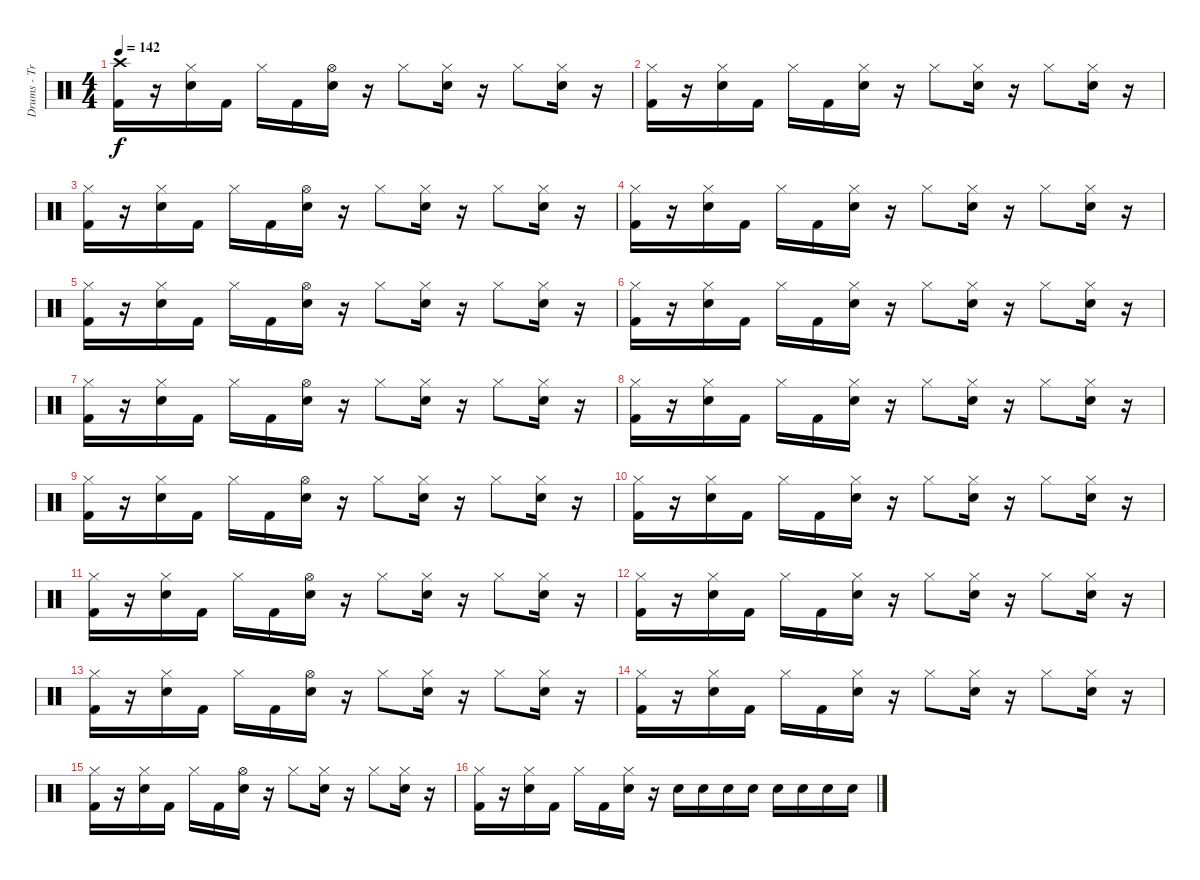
\track ("Drums - Travis" "Drums - Tr") {instrument percussion}
\staff {score}
\articulation defaults
\ts (4 4)
\tempo 142
\clef neutral
\ks c
("Kick (hit) 2" "Crash high (hit)").16{dy f} r.16 ("Electric Snare (hit)" "Hi-Hat (closed)").16 "Kick (hit) 2".16 "Hi-Hat (closed)".16 "Kick (hit) 2".16 ("Electric Snare (hit)" "Hi-Hat (open)").16 r.16 "Hi-Hat (closed)".8 ("Electric Snare (hit)" "Hi-Hat (closed)").16 r.16 "Hi-Hat (closed)".8 ("Electric Snare (hit)" "Hi-Hat (closed)").16 r.16 |
("Kick (hit) 2" "Hi-Hat (closed)").16 r.16 ("Electric Snare (hit)" "Hi-Hat (closed)").16 "Kick (hit) 2".16 "Hi-Hat (closed)".16 "Kick (hit) 2".16 ("Electric Snare (hit)" "Hi-Hat (closed)").16 r.16 "Hi-Hat (closed)".8 ("Electric Snare (hit)" "Hi-Hat (closed)").16 r.16 "Hi-Hat (closed)".8 ("Electric Snare (hit)" "Hi-Hat (closed)").16 r.16 |
("Hi-Hat (closed)" "Kick (hit) 2").16 r.16 ("Electric Snare (hit)" "Hi-Hat (closed)").16 "Kick (hit) 2".16 "Hi-Hat (closed)".16 "Kick (hit) 2".16 ("Electric Snare (hit)" "Hi-Hat (open)").16 r.16 "Hi-Hat (closed)".8 ("Electric Snare (hit)" "Hi-Hat (closed)").16 r.16 "Hi-Hat (closed)".8 ("Electric Snare (hit)" "Hi-Hat (closed)").16 r.16 |
("Kick (hit) 2" "Hi-Hat (closed)").16 r.16 ("Electric Snare (hit)" "Hi-Hat (closed)").16 "Kick (hit) 2".16 "Hi-Hat (closed)".16 "Kick (hit) 2".16 ("Electric Snare (hit)" "Hi-Hat (closed)").16 r.16 "Hi-Hat (closed)".8 ("Electric Snare (hit)" "Hi-Hat (closed)").16 r.16 "Hi-Hat (closed)".8 ("Electric Snare (hit)" "Hi-Hat (closed)").16 r.16 |
("Kick (hit) 2" "Hi-Hat (closed)").16 r.16 ("Electric Snare (hit)" "Hi-Hat (closed)").16 "Kick (hit) 2".16 "Hi-Hat (closed)".16 "Kick (hit) 2".16 ("Electric Snare (hit)" "Hi-Hat (open)").16 r.16 "Hi-Hat (closed)".8 ("Electric Snare (hit)" "Hi-Hat (closed)").16 r.16 "Hi-Hat (closed)".8 ("Electric Snare (hit)" "Hi-Hat (closed)").16 r.16 |
("Kick (hit) 2" "Hi-Hat (closed)").16 r.16 ("Electric Snare (hit)" "Hi-Hat (closed)").16 "Kick (hit) 2".16 "Hi-Hat (closed)".16 "Kick (hit) 2".16 ("Electric Snare (hit)" "Hi-Hat (closed)").16 r.16 "Hi-Hat (closed)".8 ("Electric Snare (hit)" "Hi-Hat (closed)").16 r.16 "Hi-Hat (closed)".8 ("Electric Snare (hit)" "Hi-Hat (closed)").16 r.16 |
("Kick (hit) 2" "Hi-Hat (closed)").16 r.16 ("Electric Snare (hit)" "Hi-Hat (closed)").16 "Kick (hit) 2".16 "Hi-Hat (closed)".16 "Kick (hit) 2".16 ("Electric Snare (hit)" "Hi-Hat (open)").16 r.16 "Hi-Hat (closed)".8 ("Electric Snare (hit)" "Hi-Hat (closed)").16 r.16 "Hi-Hat (closed)".8 ("Electric Snare (hit)" "Hi-Hat (closed)").16 r.16 |
("Kick (hit) 2" "Hi-Hat (closed)").16 r.16 ("Electric Snare (hit)" "Hi-Hat (closed)").16 "Kick (hit) 2".16 "Hi-Hat (closed)".16 "Kick (hit) 2".16 ("Electric Snare (hit)" "Hi-Hat (closed)").16 r.16 "Hi-Hat (closed)".8 ("Electric Snare (hit)" "Hi-Hat (closed)").16 r.16 "Hi-Hat (closed)".8 ("Electric Snare (hit)" "Hi-Hat (closed)").16 r.16 |
("Kick (hit) 2" "Hi-Hat (closed)").16 r.16 ("Electric Snare (hit)" "Hi-Hat (closed)").16 "Kick (hit) 2".16 "Hi-Hat (closed)".16 "Kick (hit) 2".16 ("Electric Snare (hit)" "Hi-Hat (open)").16 r.16 "Hi-Hat (closed)".8 ("Electric Snare (hit)" "Hi-Hat (closed)").16 r.16 "Hi-Hat (closed)".8 ("Electric Snare (hit)" "Hi-Hat (closed)").16 r.16 |
("Kick (hit) 2" "Hi-Hat (closed)").16 r.16 ("Electric Snare (hit)" "Hi-Hat (closed)").16 "Kick (hit) 2".16 "Hi-Hat (closed)".16 "Kick (hit) 2".16 ("Electric Snare (hit)" "Hi-Hat (closed)").16 r.16 "Hi-Hat (closed)".8 ("Electric Snare (hit)" "Hi-Hat (closed)").16 r.16 "Hi-Hat (closed)".8 ("Electric Snare (hit)" "Hi-Hat (closed)").16 r.16 |
("Kick (hit) 2" "Hi-Hat (closed)").16 r.16 ("Electric Snare (hit)" "Hi-Hat (closed)").16 "Kick (hit) 2".16 "Hi-Hat (closed)".16 "Kick (hit) 2".16 ("Electric Snare (hit)" "Hi-Hat (open)").16 r.16 "Hi-Hat (closed)".8 ("Electric Snare (hit)" "Hi-Hat (closed)").16 r.16 "Hi-Hat (closed)".8 ("Electric Snare (hit)" "Hi-Hat (closed)").16 r.16 |
("Kick (hit) 2" "Hi-Hat (closed)").16 r.16 ("Electric Snare (hit)" "Hi-Hat (closed)").16 "Kick (hit) 2".16 "Hi-Hat (closed)".16 "Kick (hit) 2".16 ("Electric Snare (hit)" "Hi-Hat (closed)").16 r.16 "Hi-Hat (closed)".8 ("Electric Snare (hit)" "Hi-Hat (closed)").16 r.16 "Hi-Hat (closed)".8 ("Electric Snare (hit)" "Hi-Hat (closed)").16 r.16 |
("Kick (hit) 2" "Hi-Hat (closed)").16 r.16 ("Electric Snare (hit)" "Hi-Hat (closed)").16 "Kick (hit) 2".16 "Hi-Hat (closed)".16 "Kick (hit) 2".16 ("Electric Snare (hit)" "Hi-Hat (open)").16 r.16 "Hi-Hat (closed)".8 ("Electric Snare (hit)" "Hi-Hat (closed)").16 r.16 "Hi-Hat (closed)".8 ("Electric Snare (hit)" "Hi-Hat (closed)").16 r.16 |
("Kick (hit) 2" "Hi-Hat (closed)").16 r.16 ("Electric Snare (hit)" "Hi-Hat (closed)").16 "Kick (hit) 2".16 "Hi-Hat (closed)".16 "Kick (hit) 2".16 ("Electric Snare (hit)" "Hi-Hat (closed)").16 r.16 "Hi-Hat (closed)".8 ("Electric Snare (hit)" "Hi-Hat (closed)").16 r.16 "Hi-Hat (closed)".8 ("Electric Snare (hit)" "Hi-Hat (closed)").16 r.16 |
("Kick (hit) 2" "Hi-Hat (closed)").16 r.16 ("Electric Snare (hit)" "Hi-Hat (closed)").16 "Kick (hit) 2".16 "Hi-Hat (closed)".16 "Kick (hit) 2".16 ("Electric Snare (hit)" "Hi-Hat (open)").16 r.16 "Hi-Hat (closed)".8 ("Electric Snare (hit)" "Hi-Hat (closed)").16 r.16 "Hi-Hat (closed)".8 ("Electric Snare (hit)" "Hi-Hat (closed)").16 r.16 |
("Kick (hit) 2" "Hi-Hat (closed)").16 r.16 ("Electric Snare (hit)" "Hi-Hat (closed)").16 "Kick (hit) 2".16 "Hi-Hat (closed)".16 "Kick (hit) 2".16 ("Electric Snare (hit)" "Hi-Hat (closed)").16 r.16 "Electric Snare (hit)".16 "Electric Snare (hit)".16 "Electric Snare (hit)".16 "Electric Snare (hit)".16 "Electric Snare (hit)".16 "Electric Snare (hit)".16 "Electric Snare (hit)".16 "Electric Snare (hit)".16
